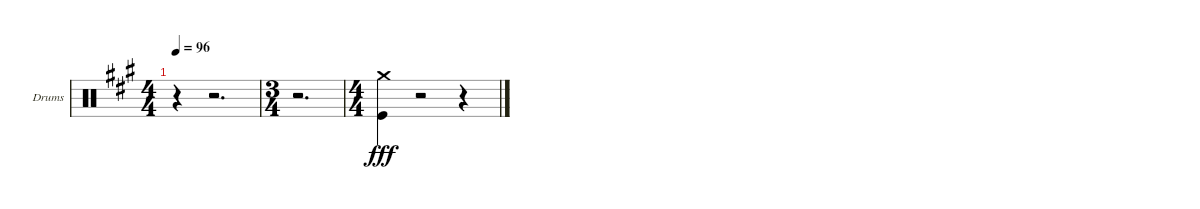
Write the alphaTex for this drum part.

\bracketExtendMode nobrackets
\firstSystemTrackNameOrientation horizontal
\otherSystemsTrackNameOrientation horizontal
\defaultBarNumberDisplay FirstOfSystem
\track ("Drumkit" "Drums") {instrument percussion}
\staff {score}
\articulation defaults
\ts (4 4)
\tempo 96
\clef neutral
\ks a
r.4{dy fff} r.2{d} |
\ts (3 4)
r.2{d} |
\ts (4 4)
("Kick (hit)" "Crash medium (hit)").4 r.2 r.4
